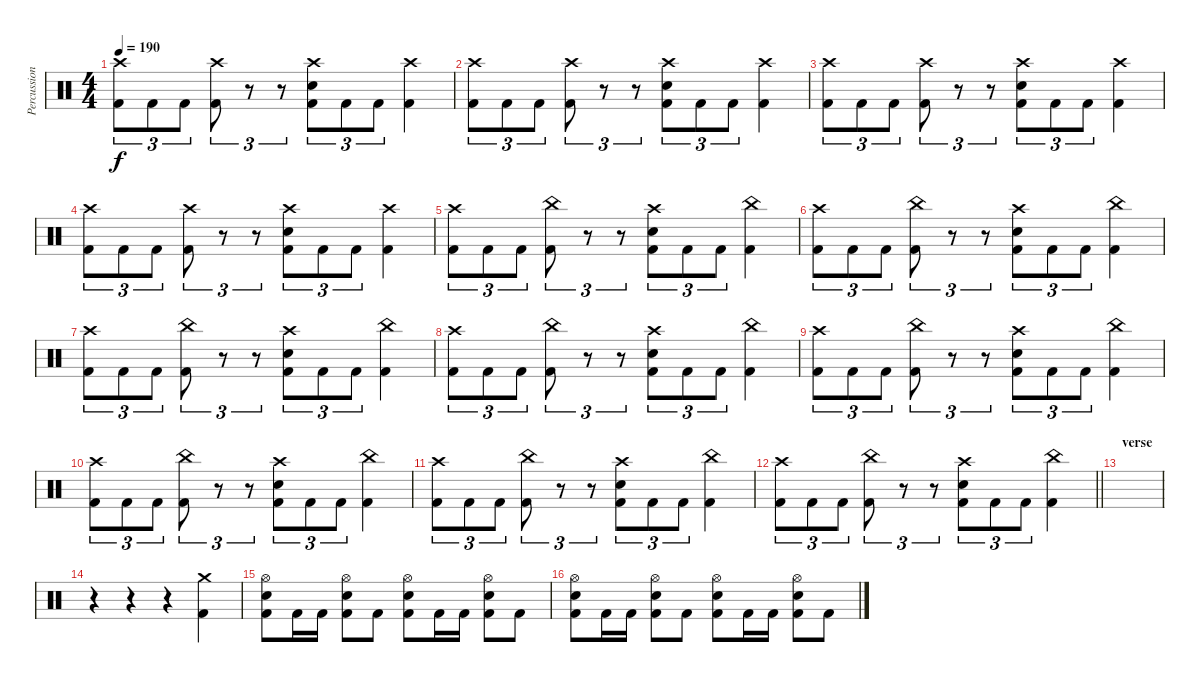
\track ("Percussion" "Percussion") {instrument percussion}
\staff {score}
\articulation defaults
\ts (4 4)
\tempo 190
\clef neutral
\ks c
("Crash high (hit)" "Kick (hit) 2").8{tu (3 2) dy f} "Kick (hit) 2".8{tu (3 2)} "Kick (hit) 2".8{tu (3 2)} ("Crash high (hit)" "Kick (hit) 2").8{tu (3 2)} r.8{tu (3 2)} r.8{tu (3 2)} ("Crash high (hit)" "Electric Snare (hit)" "Kick (hit) 2").8{tu (3 2)} "Kick (hit) 2".8{tu (3 2)} "Kick (hit) 2".8{tu (3 2)} ("Crash high (hit)" "Kick (hit) 2").4 |
("Crash high (hit)" "Kick (hit) 2").8{tu (3 2)} "Kick (hit) 2".8{tu (3 2)} "Kick (hit) 2".8{tu (3 2)} ("Crash high (hit)" "Kick (hit) 2").8{tu (3 2)} r.8{tu (3 2)} r.8{tu (3 2)} ("Crash high (hit)" "Electric Snare (hit)" "Kick (hit) 2").8{tu (3 2)} "Kick (hit) 2".8{tu (3 2)} "Kick (hit) 2".8{tu (3 2)} ("Crash high (hit)" "Kick (hit) 2").4 |
("Crash high (hit)" "Kick (hit) 2").8{tu (3 2)} "Kick (hit) 2".8{tu (3 2)} "Kick (hit) 2".8{tu (3 2)} ("Crash high (hit)" "Kick (hit) 2").8{tu (3 2)} r.8{tu (3 2)} r.8{tu (3 2)} ("Crash high (hit)" "Electric Snare (hit)" "Kick (hit) 2").8{tu (3 2)} "Kick (hit) 2".8{tu (3 2)} "Kick (hit) 2".8{tu (3 2)} ("Crash high (hit)" "Kick (hit) 2").4 |
("Crash high (hit)" "Kick (hit) 2").8{tu (3 2)} "Kick (hit) 2".8{tu (3 2)} "Kick (hit) 2".8{tu (3 2)} ("Crash high (hit)" "Kick (hit) 2").8{tu (3 2)} r.8{tu (3 2)} r.8{tu (3 2)} ("Crash high (hit)" "Electric Snare (hit)" "Kick (hit) 2").8{tu (3 2)} "Kick (hit) 2".8{tu (3 2)} "Kick (hit) 2".8{tu (3 2)} ("Crash high (hit)" "Kick (hit) 2").4 |
("Crash high (hit)" "Kick (hit) 2").8{tu (3 2)} "Kick (hit) 2".8{tu (3 2)} "Kick (hit) 2".8{tu (3 2)} ("China (hit)" "Kick (hit) 2").8{tu (3 2)} r.8{tu (3 2)} r.8{tu (3 2)} ("Crash high (hit)" "Electric Snare (hit)" "Kick (hit) 2").8{tu (3 2)} "Kick (hit) 2".8{tu (3 2)} "Kick (hit) 2".8{tu (3 2)} ("China (hit)" "Kick (hit) 2").4 |
("Crash high (hit)" "Kick (hit) 2").8{tu (3 2)} "Kick (hit) 2".8{tu (3 2)} "Kick (hit) 2".8{tu (3 2)} ("China (hit)" "Kick (hit) 2").8{tu (3 2)} r.8{tu (3 2)} r.8{tu (3 2)} ("Crash high (hit)" "Electric Snare (hit)" "Kick (hit) 2").8{tu (3 2)} "Kick (hit) 2".8{tu (3 2)} "Kick (hit) 2".8{tu (3 2)} ("China (hit)" "Kick (hit) 2").4 |
("Crash high (hit)" "Kick (hit) 2").8{tu (3 2)} "Kick (hit) 2".8{tu (3 2)} "Kick (hit) 2".8{tu (3 2)} ("China (hit)" "Kick (hit) 2").8{tu (3 2)} r.8{tu (3 2)} r.8{tu (3 2)} ("Crash high (hit)" "Electric Snare (hit)" "Kick (hit) 2").8{tu (3 2)} "Kick (hit) 2".8{tu (3 2)} "Kick (hit) 2".8{tu (3 2)} ("China (hit)" "Kick (hit) 2").4 |
("Crash high (hit)" "Kick (hit) 2").8{tu (3 2)} "Kick (hit) 2".8{tu (3 2)} "Kick (hit) 2".8{tu (3 2)} ("China (hit)" "Kick (hit) 2").8{tu (3 2)} r.8{tu (3 2)} r.8{tu (3 2)} ("Crash high (hit)" "Electric Snare (hit)" "Kick (hit) 2").8{tu (3 2)} "Kick (hit) 2".8{tu (3 2)} "Kick (hit) 2".8{tu (3 2)} ("China (hit)" "Kick (hit) 2").4 |
("Crash high (hit)" "Kick (hit) 2").8{tu (3 2)} "Kick (hit) 2".8{tu (3 2)} "Kick (hit) 2".8{tu (3 2)} ("China (hit)" "Kick (hit) 2").8{tu (3 2)} r.8{tu (3 2)} r.8{tu (3 2)} ("Crash high (hit)" "Electric Snare (hit)" "Kick (hit) 2").8{tu (3 2)} "Kick (hit) 2".8{tu (3 2)} "Kick (hit) 2".8{tu (3 2)} ("China (hit)" "Kick (hit) 2").4 |
("Crash high (hit)" "Kick (hit) 2").8{tu (3 2)} "Kick (hit) 2".8{tu (3 2)} "Kick (hit) 2".8{tu (3 2)} ("China (hit)" "Kick (hit) 2").8{tu (3 2)} r.8{tu (3 2)} r.8{tu (3 2)} ("Crash high (hit)" "Electric Snare (hit)" "Kick (hit) 2").8{tu (3 2)} "Kick (hit) 2".8{tu (3 2)} "Kick (hit) 2".8{tu (3 2)} ("China (hit)" "Kick (hit) 2").4 |
("Crash high (hit)" "Kick (hit) 2").8{tu (3 2)} "Kick (hit) 2".8{tu (3 2)} "Kick (hit) 2".8{tu (3 2)} ("China (hit)" "Kick (hit) 2").8{tu (3 2)} r.8{tu (3 2)} r.8{tu (3 2)} ("Crash high (hit)" "Electric Snare (hit)" "Kick (hit) 2").8{tu (3 2)} "Kick (hit) 2".8{tu (3 2)} "Kick (hit) 2".8{tu (3 2)} ("China (hit)" "Kick (hit) 2").4 |
\barLineRight lightlight
("Crash high (hit)" "Kick (hit) 2").8{tu (3 2)} "Kick (hit) 2".8{tu (3 2)} "Kick (hit) 2".8{tu (3 2)} ("China (hit)" "Kick (hit) 2").8{tu (3 2)} r.8{tu (3 2)} r.8{tu (3 2)} ("Crash high (hit)" "Electric Snare (hit)" "Kick (hit) 2").8{tu (3 2)} "Kick (hit) 2".8{tu (3 2)} "Kick (hit) 2".8{tu (3 2)} ("China (hit)" "Kick (hit) 2").4 |
\section ("" "verse")
|
r.4 r.4 r.4 ("Crash medium (hit)" "Kick (hit) 2").4 |
("Hi-Hat (open)" "Electric Snare (hit)" "Kick (hit) 2").8 "Kick (hit) 2".16 "Kick (hit) 2".16 ("Hi-Hat (open)" "Electric Snare (hit)" "Kick (hit) 2").8 "Kick (hit) 2".8 ("Hi-Hat (open)" "Electric Snare (hit)" "Kick (hit) 2").8 "Kick (hit) 2".16 "Kick (hit) 2".16 ("Hi-Hat (open)" "Electric Snare (hit)" "Kick (hit) 2").8 "Kick (hit) 2".8 |
("Hi-Hat (open)" "Electric Snare (hit)" "Kick (hit) 2").8 "Kick (hit) 2".16 "Kick (hit) 2".16 ("Hi-Hat (open)" "Electric Snare (hit)" "Kick (hit) 2").8 "Kick (hit) 2".8 ("Hi-Hat (open)" "Electric Snare (hit)" "Kick (hit) 2").8 "Kick (hit) 2".16 "Kick (hit) 2".16 ("Hi-Hat (open)" "Electric Snare (hit)" "Kick (hit) 2").8 "Kick (hit) 2".8
